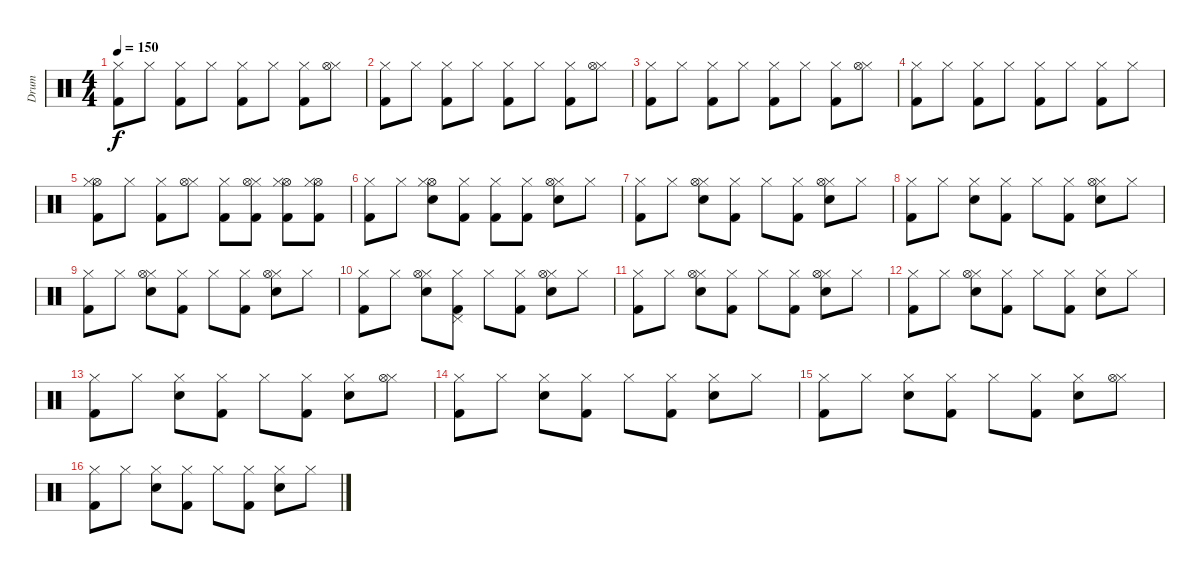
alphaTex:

\track ("Drum" "Drum") {instrument percussion}
\staff {score}
\articulation defaults
\ts (4 4)
\tempo 150
\clef neutral
\ks c
("Hi-Hat (closed)" "Kick (hit) 2").8{dy f} "Hi-Hat (closed)".8 ("Hi-Hat (closed)" "Kick (hit) 2").8 "Hi-Hat (closed)".8 ("Kick (hit) 2" "Hi-Hat (closed)").8 "Hi-Hat (closed)".8 ("Kick (hit) 2" "Hi-Hat (closed)").8 ("Hi-Hat (closed)" "Hi-Hat (open)").8 |
("Kick (hit) 2" "Hi-Hat (closed)").8 "Hi-Hat (closed)".8 ("Hi-Hat (closed)" "Kick (hit) 2").8 "Hi-Hat (closed)".8 ("Hi-Hat (closed)" "Kick (hit) 2").8 "Hi-Hat (closed)".8 ("Hi-Hat (closed)" "Kick (hit) 2").8 ("Hi-Hat (closed)" "Hi-Hat (open)").8 |
("Hi-Hat (closed)" "Kick (hit) 2").8 "Hi-Hat (closed)".8 ("Hi-Hat (closed)" "Kick (hit) 2").8 "Hi-Hat (closed)".8 ("Hi-Hat (closed)" "Kick (hit) 2").8 "Hi-Hat (closed)".8 ("Hi-Hat (closed)" "Kick (hit) 2").8 ("Hi-Hat (closed)" "Hi-Hat (open)").8 |
("Hi-Hat (closed)" "Kick (hit) 2").8 "Hi-Hat (closed)".8 ("Hi-Hat (closed)" "Kick (hit) 2").8 "Hi-Hat (closed)".8 ("Kick (hit) 2" "Hi-Hat (closed)").8 "Hi-Hat (closed)".8 ("Kick (hit) 2" "Hi-Hat (closed)").8 "Hi-Hat (closed)".8 |
("Hi-Hat (open)" "Kick (hit) 2" "Hi-Hat (closed)").8 "Hi-Hat (closed)".8 ("Kick (hit) 2" "Hi-Hat (closed)").8 ("Hi-Hat (closed)" "Hi-Hat (open)").8 ("Kick (hit) 2" "Hi-Hat (closed)").8 ("Kick (hit) 2" "Hi-Hat (closed)" "Hi-Hat (open)").8 ("Kick (hit) 2" "Hi-Hat (open)" "Hi-Hat (closed)").8 ("Kick (hit) 2" "Hi-Hat (open)" "Hi-Hat (closed)").8 |
("Kick (hit) 2" "Hi-Hat (closed)").8 "Hi-Hat (closed)".8 ("Snare (hit) 2" "Hi-Hat (open)" "Hi-Hat (closed)").8 ("Kick (hit) 2" "Hi-Hat (closed)").8 ("Kick (hit) 2" "Hi-Hat (closed)").8 ("Kick (hit) 2" "Hi-Hat (closed)").8 ("Hi-Hat (closed)" "Hi-Hat (open)" "Snare (hit) 2").8 "Hi-Hat (closed)".8 |
("Hi-Hat (closed)" "Kick (hit) 2").8 "Hi-Hat (closed)".8 ("Hi-Hat (closed)" "Snare (hit) 2" "Hi-Hat (open)").8 ("Hi-Hat (closed)" "Kick (hit) 2").8 "Hi-Hat (closed)".8 ("Hi-Hat (closed)" "Kick (hit) 2").8 ("Hi-Hat (closed)" "Hi-Hat (open)" "Snare (hit) 2").8 "Hi-Hat (closed)".8 |
("Hi-Hat (closed)" "Kick (hit) 2").8 "Hi-Hat (closed)".8 ("Hi-Hat (closed)" "Snare (hit) 2").8 ("Hi-Hat (closed)" "Kick (hit) 2").8 "Hi-Hat (closed)".8 ("Hi-Hat (closed)" "Kick (hit) 2").8 ("Hi-Hat (closed)" "Hi-Hat (open)" "Snare (hit) 2").8 "Hi-Hat (closed)".8 |
("Hi-Hat (closed)" "Kick (hit) 2").8 "Hi-Hat (closed)".8 ("Hi-Hat (closed)" "Snare (hit) 2" "Hi-Hat (open)").8 ("Hi-Hat (closed)" "Kick (hit) 2").8 "Hi-Hat (closed)".8 ("Hi-Hat (closed)" "Kick (hit) 2").8 ("Hi-Hat (closed)" "Snare (hit) 2" "Hi-Hat (open)").8 "Hi-Hat (closed)".8 |
("Hi-Hat (closed)" "Kick (hit) 2").8 "Hi-Hat (closed)".8 ("Hi-Hat (closed)" "Snare (hit) 2" "Hi-Hat (open)").8 ("Hi-Hat (closed)" "Kick (hit) 2" "Pedal Hi-Hat (hit)").8 "Hi-Hat (closed)".8 ("Hi-Hat (closed)" "Kick (hit) 2").8 ("Hi-Hat (closed)" "Snare (hit) 2" "Hi-Hat (open)").8 "Hi-Hat (closed)".8 |
("Hi-Hat (closed)" "Kick (hit) 2").8 "Hi-Hat (closed)".8 ("Hi-Hat (closed)" "Snare (hit) 2" "Hi-Hat (open)").8 ("Hi-Hat (closed)" "Kick (hit) 2").8 "Hi-Hat (closed)".8 ("Hi-Hat (closed)" "Kick (hit) 2").8 ("Hi-Hat (closed)" "Snare (hit) 2" "Hi-Hat (open)").8 "Hi-Hat (closed)".8 |
("Hi-Hat (closed)" "Kick (hit) 2").8 "Hi-Hat (closed)".8 ("Hi-Hat (closed)" "Snare (hit) 2" "Hi-Hat (open)").8 ("Hi-Hat (closed)" "Kick (hit) 2").8 "Hi-Hat (closed)".8 ("Hi-Hat (closed)" "Kick (hit) 2").8 ("Hi-Hat (closed)" "Snare (hit) 2").8 "Hi-Hat (closed)".8 |
("Hi-Hat (closed)" "Kick (hit) 2").8 "Hi-Hat (closed)".8 ("Hi-Hat (closed)" "Snare (hit) 2").8 ("Hi-Hat (closed)" "Kick (hit) 2").8 "Hi-Hat (closed)".8 ("Kick (hit) 2" "Hi-Hat (closed)").8 ("Hi-Hat (closed)" "Snare (hit) 2").8 ("Hi-Hat (closed)" "Hi-Hat (open)").8 |
("Hi-Hat (closed)" "Kick (hit) 2").8 "Hi-Hat (closed)".8 ("Hi-Hat (closed)" "Snare (hit) 2").8 ("Hi-Hat (closed)" "Kick (hit) 2").8 "Hi-Hat (closed)".8 ("Hi-Hat (closed)" "Kick (hit) 2").8 ("Hi-Hat (closed)" "Snare (hit) 2").8 "Hi-Hat (closed)".8 |
("Hi-Hat (closed)" "Kick (hit) 2").8 "Hi-Hat (closed)".8 ("Snare (hit) 2" "Hi-Hat (closed)").8 ("Hi-Hat (closed)" "Kick (hit) 2").8 "Hi-Hat (closed)".8 ("Hi-Hat (closed)" "Kick (hit) 2").8 ("Hi-Hat (closed)" "Snare (hit) 2").8 ("Hi-Hat (closed)" "Hi-Hat (open)").8 |
("Hi-Hat (closed)" "Kick (hit) 2").8 "Hi-Hat (closed)".8 ("Snare (hit) 2" "Hi-Hat (closed)").8 ("Hi-Hat (closed)" "Kick (hit) 2").8 "Hi-Hat (closed)".8 ("Hi-Hat (closed)" "Kick (hit) 2").8 ("Hi-Hat (closed)" "Snare (hit) 2").8 "Hi-Hat (closed)".8
